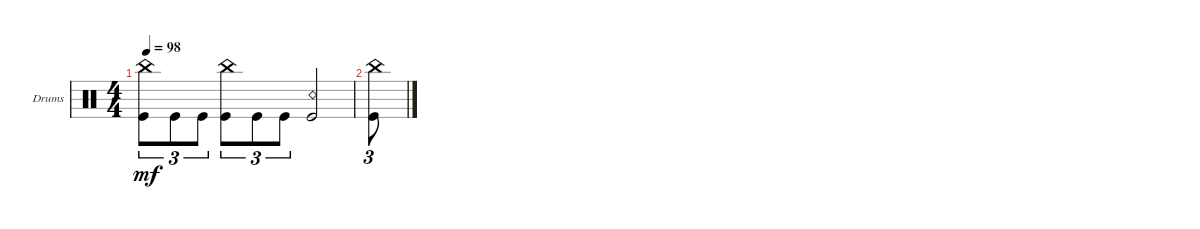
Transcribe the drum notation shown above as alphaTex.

\defaultSystemsLayout 4
\bracketExtendMode groupsimilarinstruments
\firstSystemTrackNameOrientation horizontal
\otherSystemsTrackNameOrientation horizontal
\track ("Drumkit" "Drums") {instrument percussion}
\staff {score}
\articulation defaults
\ts (4 4)
\tempo 98
\clef neutral
\scale
0.333333
\ks c
("Kick (hit)" "China (hit)").8{tu (3 2) dy mf} "Kick (hit)".8{tu (3 2)} "Kick (hit)".8{tu (3 2)} ("Kick (hit)" "China (hit)").8{tu (3 2)} "Kick (hit)".8{tu (3 2)} "Kick (hit)".8{tu (3 2)} ("Snare (rim shot)" "Kick (hit)").2 |
\scale
0.333333 ("China (hit)" "Kick (hit)").8{tu (3 2)} |
\scale
0.333333
